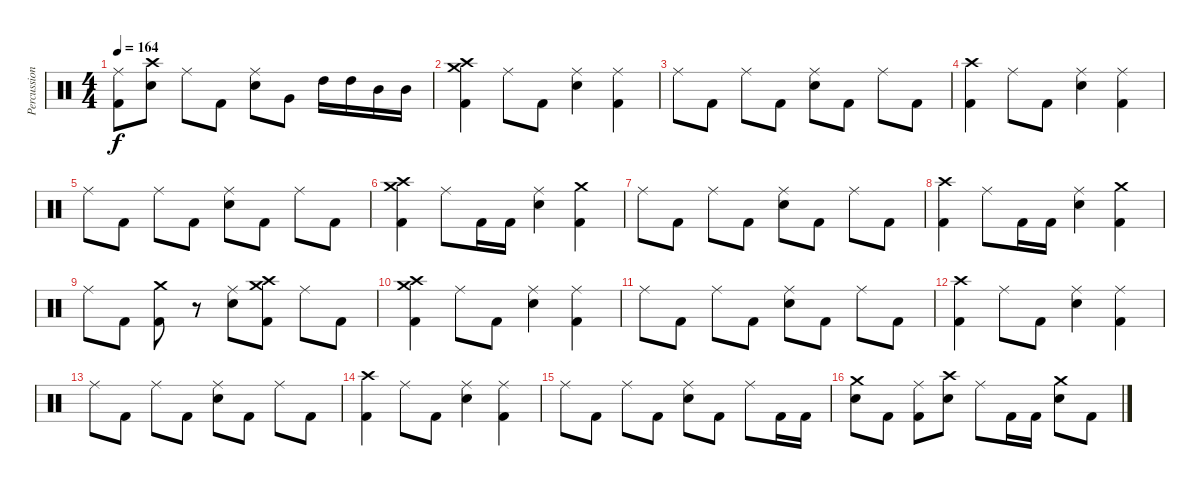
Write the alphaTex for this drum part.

\track ("Percussions" "Percussion") {instrument percussion}
\staff {score}
\articulation defaults
\ts (4 4)
\tempo 164
\clef neutral
\ks c
("Ride (middle)" "Kick (hit) 2").8{dy f} ("Crash high (hit)" "Snare (hit) 2").8 "Ride (middle)".8 "Kick (hit) 2".8 ("Ride (middle)" "Snare (hit) 2").8 "Very Low Tom (hit)".8 "High Tom (hit)".16 "High Tom (hit)".16 "Mid Tom (hit)".16 "Mid Tom (hit)".16 |
("Crash medium (hit)" "Crash high (hit)" "Kick (hit) 2").4 "Ride (middle)".8 "Kick (hit) 2".8 ("Ride (middle)" "Snare (hit) 2").4 ("Ride (middle)" "Kick (hit) 2").4 |
"Ride (middle)".8 "Kick (hit) 2".8 "Ride (middle)".8 "Kick (hit) 2".8 ("Ride (middle)" "Snare (hit) 2").8 "Kick (hit) 2".8 "Ride (middle)".8 "Kick (hit) 2".8 |
("Crash high (hit)" "Kick (hit) 2").4 "Ride (middle)".8 "Kick (hit) 2".8 ("Ride (middle)" "Snare (hit) 2").4 ("Ride (middle)" "Kick (hit) 2").4 |
"Ride (middle)".8 "Kick (hit) 2".8 "Ride (middle)".8 "Kick (hit) 2".8 ("Ride (middle)" "Snare (hit) 2").8 "Kick (hit) 2".8 "Ride (middle)".8 "Kick (hit) 2".8 |
("Crash medium (hit)" "Crash high (hit)" "Kick (hit) 2").4 "Ride (middle)".8 "Kick (hit) 2".16 "Kick (hit) 2".16 ("Ride (middle)" "Snare (hit) 2").4 ("Crash medium (hit)" "Kick (hit) 2").4 |
"Ride (middle)".8 "Kick (hit) 2".8 "Ride (middle)".8 "Kick (hit) 2".8 ("Ride (middle)" "Snare (hit) 2").8 "Kick (hit) 2".8 "Ride (middle)".8 "Kick (hit) 2".8 |
("Crash high (hit)" "Kick (hit) 2").4 "Ride (middle)".8 "Kick (hit) 2".16 "Kick (hit) 2".16 ("Ride (middle)" "Snare (hit) 2").4 ("Crash medium (hit)" "Kick (hit) 2").4 |
"Ride (middle)".8 "Kick (hit) 2".8 ("Crash medium (hit)" "Kick (hit) 2").8 r.8 ("Ride (middle)" "Snare (hit) 2").8 ("Crash medium (hit)" "Crash high (hit)" "Kick (hit) 2").8 "Ride (middle)".8 "Kick (hit) 2".8 |
("Crash medium (hit)" "Crash high (hit)" "Kick (hit) 2").4 "Ride (middle)".8 "Kick (hit) 2".8 ("Ride (middle)" "Snare (hit) 2").4 ("Ride (middle)" "Kick (hit) 2").4 |
"Ride (middle)".8 "Kick (hit) 2".8 "Ride (middle)".8 "Kick (hit) 2".8 ("Ride (middle)" "Snare (hit) 2").8 "Kick (hit) 2".8 "Ride (middle)".8 "Kick (hit) 2".8 |
("Crash high (hit)" "Kick (hit) 2").4 "Ride (middle)".8 "Kick (hit) 2".8 ("Ride (middle)" "Snare (hit) 2").4 ("Ride (middle)" "Kick (hit) 2").4 |
"Ride (middle)".8 "Kick (hit) 2".8 "Ride (middle)".8 "Kick (hit) 2".8 ("Ride (middle)" "Snare (hit) 2").8 "Kick (hit) 2".8 "Ride (middle)".8 "Kick (hit) 2".8 |
("Crash high (hit)" "Kick (hit) 2").4 "Ride (middle)".8 "Kick (hit) 2".8 ("Ride (middle)" "Snare (hit) 2").4 ("Ride (middle)" "Kick (hit) 2").4 |
"Ride (middle)".8 "Kick (hit) 2".8 "Ride (middle)".8 "Kick (hit) 2".8 ("Ride (middle)" "Snare (hit) 2").8 "Kick (hit) 2".8 "Ride (middle)".8 "Kick (hit) 2".16 "Kick (hit) 2".16 |
("Crash medium (hit)" "Snare (hit) 2").8 "Kick (hit) 2".8 ("Ride (middle)" "Kick (hit) 2").8 ("Crash high (hit)" "Snare (hit) 2").8 "Ride (middle)".8 "Kick (hit) 2".16 "Kick (hit) 2".16 ("Crash medium (hit)" "Snare (hit) 2").8 "Kick (hit) 2".8
